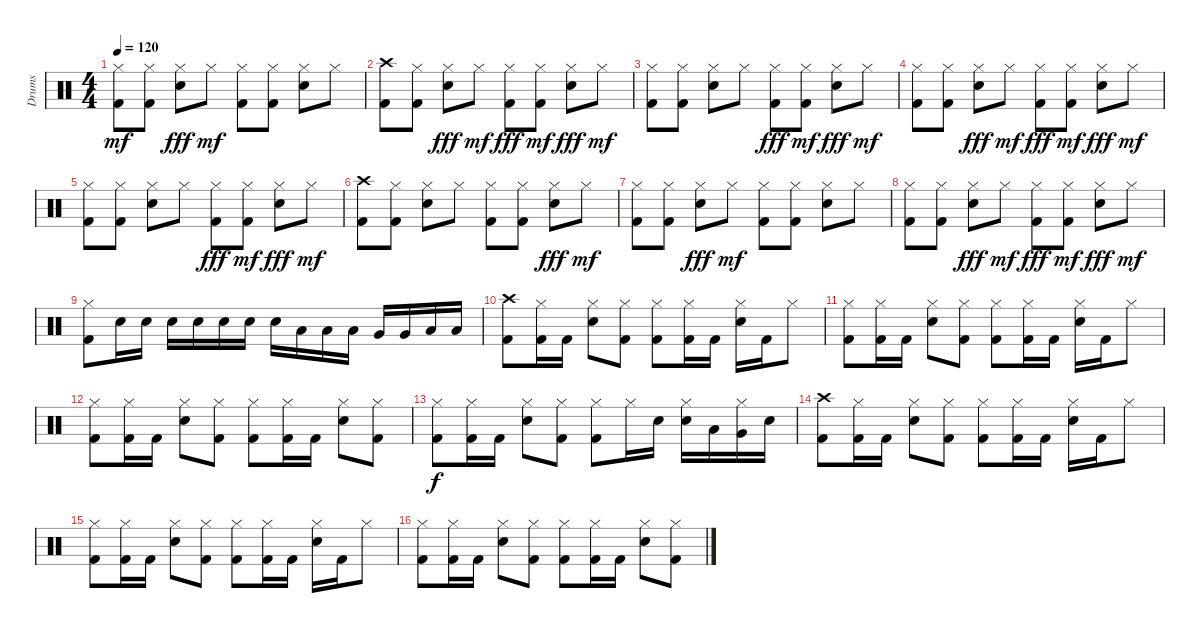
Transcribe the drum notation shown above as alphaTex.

\track ("Drums" "Drums") {instrument percussion}
\staff {score}
\articulation defaults
\ts (4 4)
\tempo 120
\clef neutral
\ks c
("Hi-Hat (closed)" "Kick (hit) 2").8{dy mf} ("Hi-Hat (closed)" "Kick (hit) 2").8 ("Snare (hit) 2" "Hi-Hat (closed)").8{dy fff} "Hi-Hat (closed)".8{dy mf} ("Hi-Hat (closed)" "Kick (hit) 2").8 ("Kick (hit) 2" "Hi-Hat (closed)").8 ("Hi-Hat (closed)" "Snare (hit) 2").8 "Hi-Hat (closed)".8 |
("Crash high (hit)" "Kick (hit) 2").8 ("Hi-Hat (closed)" "Kick (hit) 2").8 ("Snare (hit) 2" "Hi-Hat (closed)").8{dy fff} "Hi-Hat (closed)".8{dy mf} ("Kick (hit) 2" "Hi-Hat (closed)").8{dy fff} ("Hi-Hat (closed)" "Kick (hit) 2").8{dy mf} ("Snare (hit) 2" "Hi-Hat (closed)").8{dy fff} "Hi-Hat (closed)".8{dy mf} |
("Hi-Hat (closed)" "Kick (hit) 2").8 ("Hi-Hat (closed)" "Kick (hit) 2").8 ("Hi-Hat (closed)" "Snare (hit) 2").8 "Hi-Hat (closed)".8 ("Kick (hit) 2" "Hi-Hat (closed)").8{dy fff} ("Kick (hit) 2" "Hi-Hat (closed)").8{dy mf} ("Snare (hit) 2" "Hi-Hat (closed)").8{dy fff} "Hi-Hat (closed)".8{dy mf} |
("Hi-Hat (closed)" "Kick (hit) 2").8 ("Kick (hit) 2" "Hi-Hat (closed)").8 ("Snare (hit) 2" "Hi-Hat (closed)").8{dy fff} "Hi-Hat (closed)".8{dy mf} ("Kick (hit) 2" "Hi-Hat (closed)").8{dy fff} ("Kick (hit) 2" "Hi-Hat (closed)").8{dy mf} ("Snare (hit) 2" "Hi-Hat (closed)").8{dy fff} "Hi-Hat (closed)".8{dy mf} |
("Hi-Hat (closed)" "Kick (hit) 2").8 ("Hi-Hat (closed)" "Kick (hit) 2").8 ("Hi-Hat (closed)" "Snare (hit) 2").8 "Hi-Hat (closed)".8 ("Kick (hit) 2" "Hi-Hat (closed)").8{dy fff} ("Hi-Hat (closed)" "Kick (hit) 2").8{dy mf} ("Snare (hit) 2" "Hi-Hat (closed)").8{dy fff} "Hi-Hat (closed)".8{dy mf} |
("Crash high (hit)" "Kick (hit) 2").8 ("Hi-Hat (closed)" "Kick (hit) 2").8 ("Hi-Hat (closed)" "Snare (hit) 2").8 "Hi-Hat (closed)".8 ("Hi-Hat (closed)" "Kick (hit) 2").8 ("Kick (hit) 2" "Hi-Hat (closed)").8 ("Snare (hit) 2" "Hi-Hat (closed)").8{dy fff} "Hi-Hat (closed)".8{dy mf} |
("Hi-Hat (closed)" "Kick (hit) 2").8 ("Kick (hit) 2" "Hi-Hat (closed)").8 ("Snare (hit) 2" "Hi-Hat (closed)").8{dy fff} "Hi-Hat (closed)".8{dy mf} ("Hi-Hat (closed)" "Kick (hit) 2").8 ("Hi-Hat (closed)" "Kick (hit) 2").8 ("Hi-Hat (closed)" "Snare (hit) 2").8 "Hi-Hat (closed)".8 |
("Hi-Hat (closed)" "Kick (hit) 2").8 ("Kick (hit) 2" "Hi-Hat (closed)").8 ("Snare (hit) 2" "Hi-Hat (closed)").8{dy fff} "Hi-Hat (closed)".8{dy mf} ("Kick (hit) 2" "Hi-Hat (closed)").8{dy fff} ("Hi-Hat (closed)" "Kick (hit) 2").8{dy mf} ("Snare (hit) 2" "Hi-Hat (closed)").8{dy fff} "Hi-Hat (closed)".8{dy mf} |
("Hi-Hat (closed)" "Kick (hit) 2").8 "Snare (hit) 2".16 "Snare (hit) 2".16 "Snare (hit) 2".16 "Snare (hit) 2".16 "Snare (hit) 2".16 "Snare (hit) 2".16 "Snare (hit) 2".16 "Low Tom (hit)".16 "Low Tom (hit)".16 "Low Tom (hit)".16 "Very Low Tom (hit)".16 "Very Low Tom (hit)".16 "Low Floor Tom (hit)".16 "Low Floor Tom (hit)".16 |
("Kick (hit) 2" "Crash high (hit)").8 ("Kick (hit) 2" "Hi-Hat (closed)").16 "Kick (hit) 2".16 ("Snare (hit) 2" "Hi-Hat (closed)").8 ("Hi-Hat (closed)" "Kick (hit) 2").8 ("Kick (hit) 2" "Hi-Hat (closed)").8 ("Hi-Hat (closed)" "Kick (hit) 2").16 "Kick (hit) 2".16 ("Snare (hit) 2" "Hi-Hat (closed)").16 "Kick (hit) 2".16 "Hi-Hat (closed)".8 |
("Kick (hit) 2" "Hi-Hat (closed)").8 ("Kick (hit) 2" "Hi-Hat (closed)").16 "Kick (hit) 2".16 ("Hi-Hat (closed)" "Snare (hit) 2").8 ("Hi-Hat (closed)" "Kick (hit) 2").8 ("Hi-Hat (closed)" "Kick (hit) 2").8 ("Hi-Hat (closed)" "Kick (hit) 2").16 "Kick (hit) 2".16 ("Snare (hit) 2" "Hi-Hat (closed)").16 "Kick (hit) 2".16 "Hi-Hat (closed)".8 |
("Kick (hit) 2" "Hi-Hat (closed)").8 ("Kick (hit) 2" "Hi-Hat (closed)").16 "Kick (hit) 2".16 ("Hi-Hat (closed)" "Snare (hit) 2").8 ("Hi-Hat (closed)" "Kick (hit) 2").8 ("Hi-Hat (closed)" "Kick (hit) 2").8 ("Hi-Hat (closed)" "Kick (hit) 2").16 "Kick (hit) 2".16 ("Snare (hit) 2" "Hi-Hat (closed)").8 ("Hi-Hat (closed)" "Kick (hit) 2").8 |
("Kick (hit) 2" "Hi-Hat (closed)").8{dy f} ("Kick (hit) 2" "Hi-Hat (closed)").16 "Kick (hit) 2".16 ("Hi-Hat (closed)" "Snare (hit) 2").8 ("Kick (hit) 2" "Hi-Hat (closed)").8 ("Kick (hit) 2" "Hi-Hat (closed)").8 "Hi-Hat (closed)".16 "Snare (hit) 2".16 ("Snare (hit) 2" "Hi-Hat (closed)").16 "Low Tom (hit)".16 ("Hi-Hat (closed)" "Very Low Tom (hit)").16 "Snare (hit) 2".16 |
("Crash high (hit)" "Kick (hit) 2").8 ("Hi-Hat (closed)" "Kick (hit) 2").16 "Kick (hit) 2".16 ("Hi-Hat (closed)" "Snare (hit) 2").8 ("Hi-Hat (closed)" "Kick (hit) 2").8 ("Hi-Hat (closed)" "Kick (hit) 2").8 ("Kick (hit) 2" "Hi-Hat (closed)").16 "Kick (hit) 2".16 ("Hi-Hat (closed)" "Snare (hit) 2").16 "Kick (hit) 2".16 "Hi-Hat (closed)".8 |
("Hi-Hat (closed)" "Kick (hit) 2").8 ("Hi-Hat (closed)" "Kick (hit) 2").16 "Kick (hit) 2".16 ("Hi-Hat (closed)" "Snare (hit) 2").8 ("Kick (hit) 2" "Hi-Hat (closed)").8 ("Kick (hit) 2" "Hi-Hat (closed)").8 ("Kick (hit) 2" "Hi-Hat (closed)").16 "Kick (hit) 2".16 ("Snare (hit) 2" "Hi-Hat (closed)").16 "Kick (hit) 2".16 "Hi-Hat (closed)".8 |
("Hi-Hat (closed)" "Kick (hit) 2").8 ("Hi-Hat (closed)" "Kick (hit) 2").16 "Kick (hit) 2".16 ("Snare (hit) 2" "Hi-Hat (closed)").8 ("Hi-Hat (closed)" "Kick (hit) 2").8 ("Kick (hit) 2" "Hi-Hat (closed)").8 ("Kick (hit) 2" "Hi-Hat (closed)").16 "Kick (hit) 2".16 ("Snare (hit) 2" "Hi-Hat (closed)").8 ("Hi-Hat (closed)" "Kick (hit) 2").8
